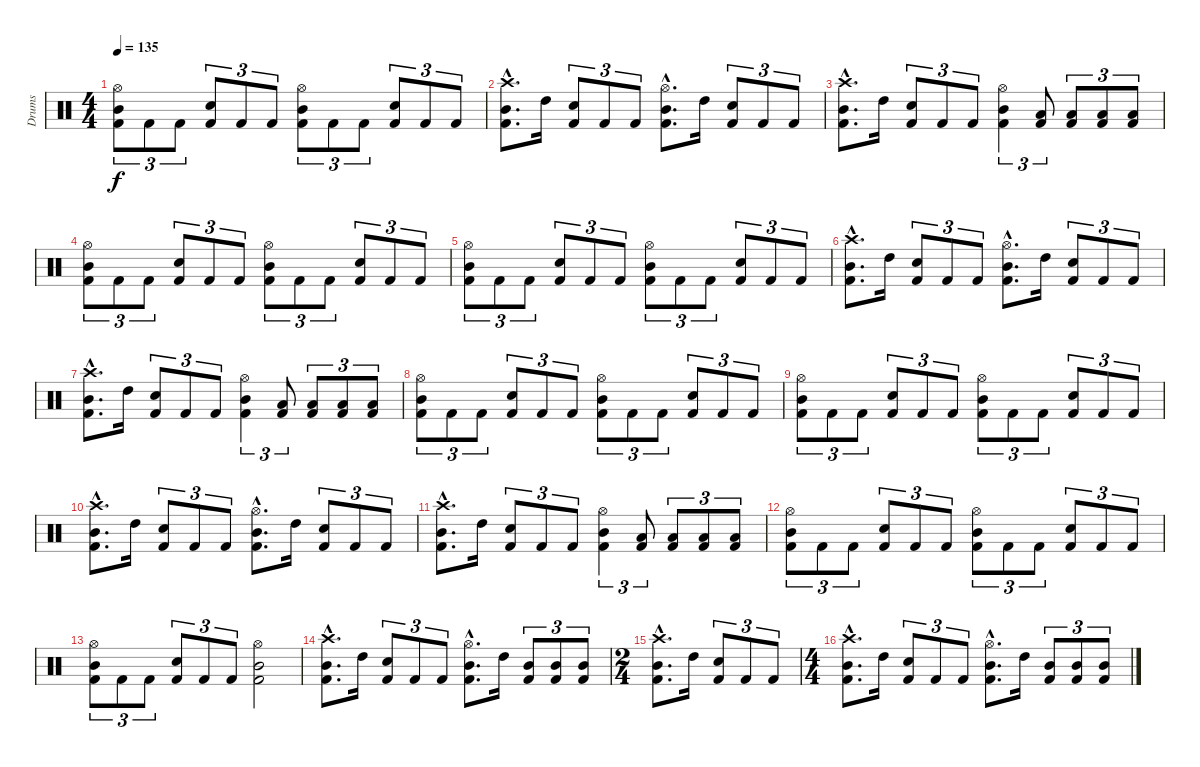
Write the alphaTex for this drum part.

\track ("Drums" "Drums") {instrument percussion}
\staff {score}
\articulation defaults
\ts (4 4)
\tempo 135
\clef neutral
\ks c
("Hi-Hat (open)" "Mid Tom (hit)" "Kick (hit) 2").8{tu (3 2) dy f} "Kick (hit) 2".8{tu (3 2)} "Kick (hit) 2".8{tu (3 2)} ("Snare (hit) 2" "Kick (hit) 2").8{tu (3 2)} "Kick (hit) 2".8{tu (3 2)} "Kick (hit) 2".8{tu (3 2)} ("Hi-Hat (open)" "Mid Tom (hit)" "Kick (hit) 2").8{tu (3 2)} "Kick (hit) 2".8{tu (3 2)} "Kick (hit) 2".8{tu (3 2)} ("Snare (hit) 2" "Kick (hit) 2").8{tu (3 2)} "Kick (hit) 2".8{tu (3 2)} "Kick (hit) 2".8{tu (3 2)} |
("Crash high (hit)"{hac} "Mid Tom (hit)"{hac} "Kick (hit) 2"{hac}).8{d} "High Tom (hit)".16 ("Snare (hit) 2" "Kick (hit) 2").8{tu (3 2)} "Kick (hit) 2".8{tu (3 2)} "Kick (hit) 2".8{tu (3 2)} ("Hi-Hat (open)"{hac} "Mid Tom (hit)"{hac} "Kick (hit) 2"{hac}).8{d} "High Tom (hit)".16 ("Snare (hit) 2" "Kick (hit) 2").8{tu (3 2)} "Kick (hit) 2".8{tu (3 2)} "Kick (hit) 2".8{tu (3 2)} |
("Crash high (hit)"{hac} "Mid Tom (hit)"{hac} "Kick (hit) 2"{hac}).8{d} "High Tom (hit)".16 ("Snare (hit) 2" "Kick (hit) 2").8{tu (3 2)} "Kick (hit) 2".8{tu (3 2)} "Kick (hit) 2".8{tu (3 2)} ("Hi-Hat (open)" "Mid Tom (hit)" "Kick (hit) 2").4{tu (3 2)} ("Low Tom (hit)" "Kick (hit) 2").8{tu (3 2)} ("Low Tom (hit)" "Kick (hit) 2").8{tu (3 2)} ("Low Tom (hit)" "Kick (hit) 2").8{tu (3 2)} ("Low Tom (hit)" "Kick (hit) 2").8{tu (3 2)} |
("Hi-Hat (open)" "Mid Tom (hit)" "Kick (hit) 2").8{tu (3 2)} "Kick (hit) 2".8{tu (3 2)} "Kick (hit) 2".8{tu (3 2)} ("Snare (hit) 2" "Kick (hit) 2").8{tu (3 2)} "Kick (hit) 2".8{tu (3 2)} "Kick (hit) 2".8{tu (3 2)} ("Hi-Hat (open)" "Mid Tom (hit)" "Kick (hit) 2").8{tu (3 2)} "Kick (hit) 2".8{tu (3 2)} "Kick (hit) 2".8{tu (3 2)} ("Snare (hit) 2" "Kick (hit) 2").8{tu (3 2)} "Kick (hit) 2".8{tu (3 2)} "Kick (hit) 2".8{tu (3 2)} |
("Hi-Hat (open)" "Mid Tom (hit)" "Kick (hit) 2").8{tu (3 2)} "Kick (hit) 2".8{tu (3 2)} "Kick (hit) 2".8{tu (3 2)} ("Snare (hit) 2" "Kick (hit) 2").8{tu (3 2)} "Kick (hit) 2".8{tu (3 2)} "Kick (hit) 2".8{tu (3 2)} ("Hi-Hat (open)" "Mid Tom (hit)" "Kick (hit) 2").8{tu (3 2)} "Kick (hit) 2".8{tu (3 2)} "Kick (hit) 2".8{tu (3 2)} ("Snare (hit) 2" "Kick (hit) 2").8{tu (3 2)} "Kick (hit) 2".8{tu (3 2)} "Kick (hit) 2".8{tu (3 2)} |
("Crash high (hit)"{hac} "Mid Tom (hit)"{hac} "Kick (hit) 2"{hac}).8{d} "High Tom (hit)".16 ("Snare (hit) 2" "Kick (hit) 2").8{tu (3 2)} "Kick (hit) 2".8{tu (3 2)} "Kick (hit) 2".8{tu (3 2)} ("Hi-Hat (open)"{hac} "Mid Tom (hit)"{hac} "Kick (hit) 2"{hac}).8{d} "High Tom (hit)".16 ("Snare (hit) 2" "Kick (hit) 2").8{tu (3 2)} "Kick (hit) 2".8{tu (3 2)} "Kick (hit) 2".8{tu (3 2)} |
("Crash high (hit)"{hac} "Mid Tom (hit)"{hac} "Kick (hit) 2"{hac}).8{d} "High Tom (hit)".16 ("Snare (hit) 2" "Kick (hit) 2").8{tu (3 2)} "Kick (hit) 2".8{tu (3 2)} "Kick (hit) 2".8{tu (3 2)} ("Hi-Hat (open)" "Mid Tom (hit)" "Kick (hit) 2").4{tu (3 2)} ("Low Tom (hit)" "Kick (hit) 2").8{tu (3 2)} ("Low Tom (hit)" "Kick (hit) 2").8{tu (3 2)} ("Low Tom (hit)" "Kick (hit) 2").8{tu (3 2)} ("Low Tom (hit)" "Kick (hit) 2").8{tu (3 2)} |
("Hi-Hat (open)" "Mid Tom (hit)" "Kick (hit) 2").8{tu (3 2)} "Kick (hit) 2".8{tu (3 2)} "Kick (hit) 2".8{tu (3 2)} ("Snare (hit) 2" "Kick (hit) 2").8{tu (3 2)} "Kick (hit) 2".8{tu (3 2)} "Kick (hit) 2".8{tu (3 2)} ("Hi-Hat (open)" "Mid Tom (hit)" "Kick (hit) 2").8{tu (3 2)} "Kick (hit) 2".8{tu (3 2)} "Kick (hit) 2".8{tu (3 2)} ("Snare (hit) 2" "Kick (hit) 2").8{tu (3 2)} "Kick (hit) 2".8{tu (3 2)} "Kick (hit) 2".8{tu (3 2)} |
("Hi-Hat (open)" "Mid Tom (hit)" "Kick (hit) 2").8{tu (3 2)} "Kick (hit) 2".8{tu (3 2)} "Kick (hit) 2".8{tu (3 2)} ("Snare (hit) 2" "Kick (hit) 2").8{tu (3 2)} "Kick (hit) 2".8{tu (3 2)} "Kick (hit) 2".8{tu (3 2)} ("Hi-Hat (open)" "Mid Tom (hit)" "Kick (hit) 2").8{tu (3 2)} "Kick (hit) 2".8{tu (3 2)} "Kick (hit) 2".8{tu (3 2)} ("Snare (hit) 2" "Kick (hit) 2").8{tu (3 2)} "Kick (hit) 2".8{tu (3 2)} "Kick (hit) 2".8{tu (3 2)} |
("Crash high (hit)"{hac} "Mid Tom (hit)"{hac} "Kick (hit) 2"{hac}).8{d} "High Tom (hit)".16 ("Snare (hit) 2" "Kick (hit) 2").8{tu (3 2)} "Kick (hit) 2".8{tu (3 2)} "Kick (hit) 2".8{tu (3 2)} ("Hi-Hat (open)"{hac} "Mid Tom (hit)"{hac} "Kick (hit) 2"{hac}).8{d} "High Tom (hit)".16 ("Snare (hit) 2" "Kick (hit) 2").8{tu (3 2)} "Kick (hit) 2".8{tu (3 2)} "Kick (hit) 2".8{tu (3 2)} |
("Crash high (hit)"{hac} "Mid Tom (hit)"{hac} "Kick (hit) 2"{hac}).8{d} "High Tom (hit)".16 ("Snare (hit) 2" "Kick (hit) 2").8{tu (3 2)} "Kick (hit) 2".8{tu (3 2)} "Kick (hit) 2".8{tu (3 2)} ("Hi-Hat (open)" "Mid Tom (hit)" "Kick (hit) 2").4{tu (3 2)} ("Low Tom (hit)" "Kick (hit) 2").8{tu (3 2)} ("Low Tom (hit)" "Kick (hit) 2").8{tu (3 2)} ("Low Tom (hit)" "Kick (hit) 2").8{tu (3 2)} ("Low Tom (hit)" "Kick (hit) 2").8{tu (3 2)} |
("Hi-Hat (open)" "Mid Tom (hit)" "Kick (hit) 2").8{tu (3 2)} "Kick (hit) 2".8{tu (3 2)} "Kick (hit) 2".8{tu (3 2)} ("Snare (hit) 2" "Kick (hit) 2").8{tu (3 2)} "Kick (hit) 2".8{tu (3 2)} "Kick (hit) 2".8{tu (3 2)} ("Hi-Hat (open)" "Mid Tom (hit)" "Kick (hit) 2").8{tu (3 2)} "Kick (hit) 2".8{tu (3 2)} "Kick (hit) 2".8{tu (3 2)} ("Snare (hit) 2" "Kick (hit) 2").8{tu (3 2)} "Kick (hit) 2".8{tu (3 2)} "Kick (hit) 2".8{tu (3 2)} |
("Hi-Hat (open)" "Mid Tom (hit)" "Kick (hit) 2").8{tu (3 2)} "Kick (hit) 2".8{tu (3 2)} "Kick (hit) 2".8{tu (3 2)} ("Snare (hit) 2" "Kick (hit) 2").8{tu (3 2)} "Kick (hit) 2".8{tu (3 2)} "Kick (hit) 2".8{tu (3 2)} ("Hi-Hat (open)" "Mid Tom (hit)" "Kick (hit) 2").2 |
("Crash high (hit)"{hac} "Mid Tom (hit)"{hac} "Kick (hit) 2"{hac}).8{d} "High Tom (hit)".16 ("Snare (hit) 2" "Kick (hit) 2").8{tu (3 2)} "Kick (hit) 2".8{tu (3 2)} "Kick (hit) 2".8{tu (3 2)} ("Hi-Hat (open)"{hac} "Mid Tom (hit)"{hac} "Kick (hit) 2"{hac}).8{d} "High Tom (hit)".16 ("Mid Tom (hit)" "Kick (hit) 2").8{tu (3 2)} ("Mid Tom (hit)" "Kick (hit) 2").8{tu (3 2)} ("Mid Tom (hit)" "Kick (hit) 2").8{tu (3 2)} |
\ts (2 4)
("Crash high (hit)"{hac} "Mid Tom (hit)"{hac} "Kick (hit) 2"{hac}).8{d} "High Tom (hit)".16 ("Snare (hit) 2" "Kick (hit) 2").8{tu (3 2)} "Kick (hit) 2".8{tu (3 2)} "Kick (hit) 2".8{tu (3 2)} |
\ts (4 4)
("Crash high (hit)"{hac} "Mid Tom (hit)"{hac} "Kick (hit) 2"{hac}).8{d} "High Tom (hit)".16 ("Snare (hit) 2" "Kick (hit) 2").8{tu (3 2)} "Kick (hit) 2".8{tu (3 2)} "Kick (hit) 2".8{tu (3 2)} ("Hi-Hat (open)"{hac} "Mid Tom (hit)"{hac} "Kick (hit) 2"{hac}).8{d} "High Tom (hit)".16 ("Mid Tom (hit)" "Kick (hit) 2").8{tu (3 2)} ("Mid Tom (hit)" "Kick (hit) 2").8{tu (3 2)} ("Mid Tom (hit)" "Kick (hit) 2").8{tu (3 2)}
